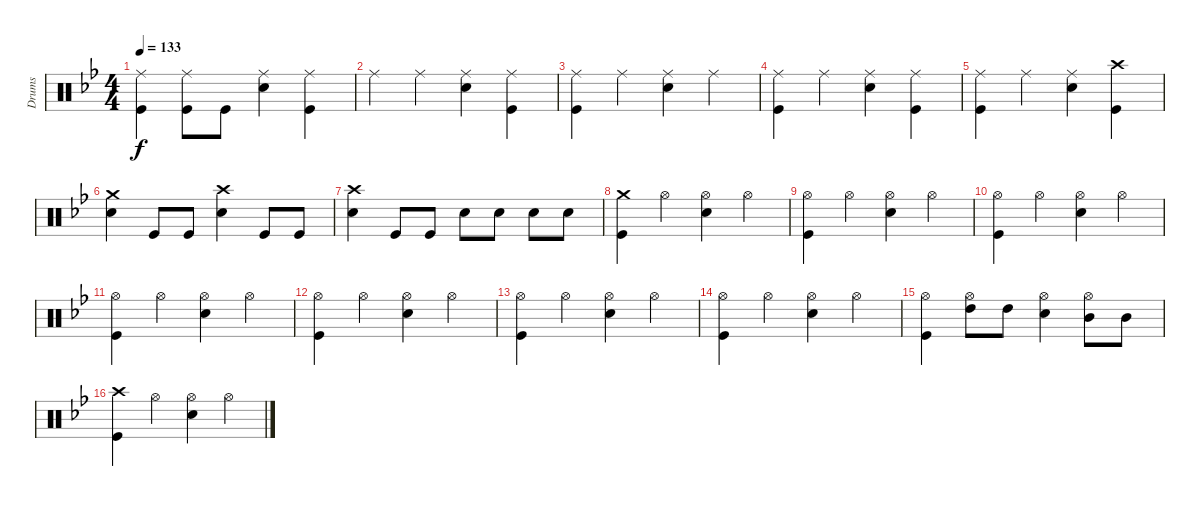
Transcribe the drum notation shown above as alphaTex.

\track ("Drums" "Drums") {instrument percussion}
\staff {score}
\articulation defaults
\ts (4 4)
\tempo 133
\clef neutral
\ks bb
("Ride (middle)" "Kick (hit)").4{dy f} ("Ride (middle)" "Kick (hit)").8 "Kick (hit)".8 ("Ride (middle)" "Snare (hit) 2").4 ("Ride (middle)" "Kick (hit)").4 |
"Ride (middle)".4 "Ride (middle)".4 ("Ride (middle)" "Snare (hit) 2").4 ("Ride (middle)" "Kick (hit)").4 |
("Ride (middle)" "Kick (hit)").4 "Ride (middle)".4 ("Ride (middle)" "Snare (hit) 2").4 "Ride (middle)".4 |
("Ride (middle)" "Kick (hit)").4 "Ride (middle)".4 ("Ride (middle)" "Snare (hit) 2").4 ("Ride (middle)" "Kick (hit)").4 |
("Ride (middle)" "Kick (hit)").4 "Ride (middle)".4 ("Ride (middle)" "Snare (hit) 2").4 ("Crash high (hit)" "Kick (hit)").4 |
("Crash medium (hit)" "Snare (hit) 2").4 "Kick (hit)".8 "Kick (hit)".8 ("Crash high (hit)" "Snare (hit) 2").4 "Kick (hit)".8 "Kick (hit)".8 |
("Crash high (hit)" "Snare (hit) 2").4 "Kick (hit)".8 "Kick (hit)".8 "Snare (hit) 2".8 "Snare (hit) 2".8 "Snare (hit) 2".8 "Snare (hit) 2".8 |
("Crash medium (hit)" "Kick (hit)").4 "Hi-Hat (open)".4 ("Hi-Hat (open)" "Snare (hit) 2").4 "Hi-Hat (open)".4 |
("Hi-Hat (open)" "Kick (hit)").4 "Hi-Hat (open)".4 ("Hi-Hat (open)" "Snare (hit) 2").4 "Hi-Hat (open)".4 |
("Hi-Hat (open)" "Kick (hit)").4 "Hi-Hat (open)".4 ("Hi-Hat (open)" "Snare (hit) 2").4 "Hi-Hat (open)".4 |
("Hi-Hat (open)" "Kick (hit)").4 "Hi-Hat (open)".4 ("Hi-Hat (open)" "Snare (hit) 2").4 "Hi-Hat (open)".4 |
("Hi-Hat (open)" "Kick (hit)").4 "Hi-Hat (open)".4 ("Hi-Hat (open)" "Snare (hit) 2").4 "Hi-Hat (open)".4 |
("Hi-Hat (open)" "Kick (hit)").4 "Hi-Hat (open)".4 ("Hi-Hat (open)" "Snare (hit) 2").4 "Hi-Hat (open)".4 |
("Hi-Hat (open)" "Kick (hit)").4 "Hi-Hat (open)".4 ("Hi-Hat (open)" "Snare (hit) 2").4 "Hi-Hat (open)".4 |
("Hi-Hat (open)" "Kick (hit)").4 ("Hi-Hat (open)" "High Tom (hit)").8 "High Tom (hit)".8 ("Hi-Hat (open)" "Snare (hit) 2").4 ("Hi-Hat (open)" "Mid Tom (hit)").8 "Mid Tom (hit)".8 |
("Crash high (hit)" "Kick (hit)").4 "Hi-Hat (open)".4 ("Hi-Hat (open)" "Snare (hit) 2").4 "Hi-Hat (open)".4
